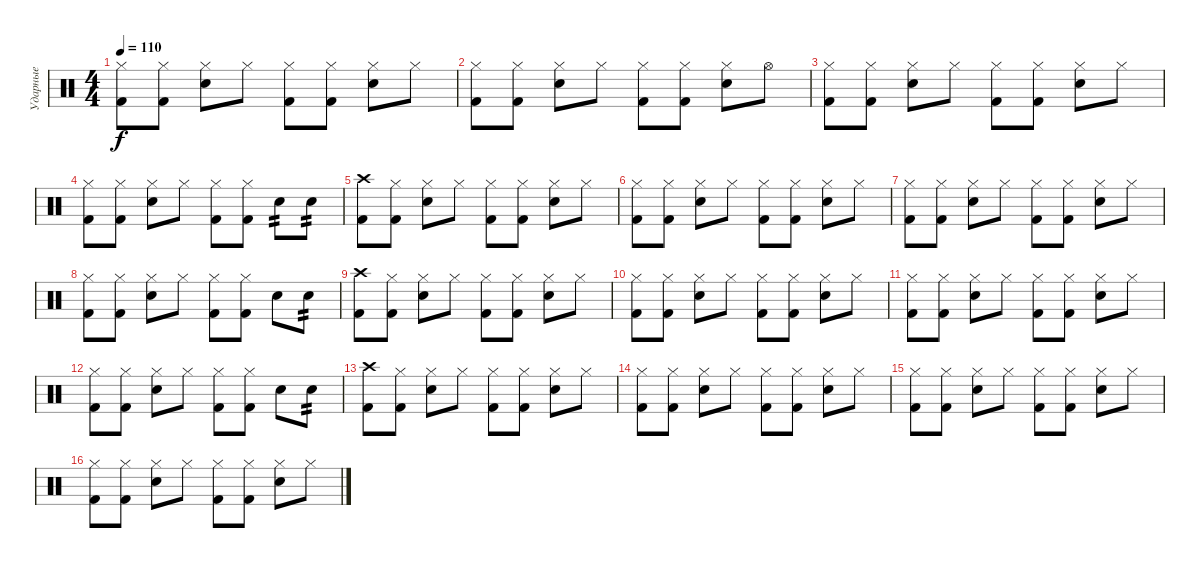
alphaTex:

\track ("Ударные" "Ударные") {instrument percussion}
\staff {score}
\articulation defaults
\ts (4 4)
\tempo 110
\clef neutral
\ks c
("Kick (hit) 2" "Hi-Hat (closed)").8{dy f} ("Kick (hit) 2" "Hi-Hat (closed)").8 ("Snare (hit) 2" "Hi-Hat (closed)").8 "Hi-Hat (closed)".8 ("Kick (hit) 2" "Hi-Hat (closed)").8 ("Kick (hit) 2" "Hi-Hat (closed)").8 ("Snare (hit) 2" "Hi-Hat (closed)").8 "Hi-Hat (closed)".8 |
("Kick (hit) 2" "Hi-Hat (closed)").8 ("Kick (hit) 2" "Hi-Hat (closed)").8 ("Snare (hit) 2" "Hi-Hat (closed)").8 "Hi-Hat (closed)".8 ("Kick (hit) 2" "Hi-Hat (closed)").8 ("Kick (hit) 2" "Hi-Hat (closed)").8 ("Snare (hit) 2" "Hi-Hat (closed)").8 "Hi-Hat (open)".8 |
("Kick (hit) 2" "Hi-Hat (closed)").8 ("Kick (hit) 2" "Hi-Hat (closed)").8 ("Snare (hit) 2" "Hi-Hat (closed)").8 "Hi-Hat (closed)".8 ("Kick (hit) 2" "Hi-Hat (closed)").8 ("Kick (hit) 2" "Hi-Hat (closed)").8 ("Snare (hit) 2" "Hi-Hat (closed)").8 "Hi-Hat (closed)".8 |
("Kick (hit) 2" "Hi-Hat (closed)").8 ("Kick (hit) 2" "Hi-Hat (closed)").8 ("Snare (hit) 2" "Hi-Hat (closed)").8 "Hi-Hat (closed)".8 ("Kick (hit) 2" "Hi-Hat (closed)").8 ("Kick (hit) 2" "Hi-Hat (closed)").8 "Snare (hit) 2".8{tp 2} "Snare (hit) 2".8{tp 2} |
("Kick (hit) 2" "Crash high (hit)").8 ("Kick (hit) 2" "Hi-Hat (closed)").8 ("Snare (hit) 2" "Hi-Hat (closed)").8 "Hi-Hat (closed)".8 ("Kick (hit) 2" "Hi-Hat (closed)").8 ("Kick (hit) 2" "Hi-Hat (closed)").8 ("Snare (hit) 2" "Hi-Hat (closed)").8 "Hi-Hat (closed)".8 |
("Kick (hit) 2" "Hi-Hat (closed)").8 ("Kick (hit) 2" "Hi-Hat (closed)").8 ("Snare (hit) 2" "Hi-Hat (closed)").8 "Hi-Hat (closed)".8 ("Kick (hit) 2" "Hi-Hat (closed)").8 ("Kick (hit) 2" "Hi-Hat (closed)").8 ("Snare (hit) 2" "Hi-Hat (closed)").8 "Hi-Hat (closed)".8 |
("Kick (hit) 2" "Hi-Hat (closed)").8 ("Kick (hit) 2" "Hi-Hat (closed)").8 ("Snare (hit) 2" "Hi-Hat (closed)").8 "Hi-Hat (closed)".8 ("Kick (hit) 2" "Hi-Hat (closed)").8 ("Kick (hit) 2" "Hi-Hat (closed)").8 ("Snare (hit) 2" "Hi-Hat (closed)").8 "Hi-Hat (closed)".8 |
("Kick (hit) 2" "Hi-Hat (closed)").8 ("Kick (hit) 2" "Hi-Hat (closed)").8 ("Snare (hit) 2" "Hi-Hat (closed)").8 "Hi-Hat (closed)".8 ("Kick (hit) 2" "Hi-Hat (closed)").8 ("Kick (hit) 2" "Hi-Hat (closed)").8 "Snare (hit) 2".8 "Snare (hit) 2".8{tp 2} |
("Kick (hit) 2" "Crash high (hit)").8 ("Kick (hit) 2" "Hi-Hat (closed)").8 ("Snare (hit) 2" "Hi-Hat (closed)").8 "Hi-Hat (closed)".8 ("Kick (hit) 2" "Hi-Hat (closed)").8 ("Kick (hit) 2" "Hi-Hat (closed)").8 ("Snare (hit) 2" "Hi-Hat (closed)").8 "Hi-Hat (closed)".8 |
("Kick (hit) 2" "Hi-Hat (closed)").8 ("Kick (hit) 2" "Hi-Hat (closed)").8 ("Snare (hit) 2" "Hi-Hat (closed)").8 "Hi-Hat (closed)".8 ("Kick (hit) 2" "Hi-Hat (closed)").8 ("Kick (hit) 2" "Hi-Hat (closed)").8 ("Snare (hit) 2" "Hi-Hat (closed)").8 "Hi-Hat (closed)".8 |
("Kick (hit) 2" "Hi-Hat (closed)").8 ("Kick (hit) 2" "Hi-Hat (closed)").8 ("Snare (hit) 2" "Hi-Hat (closed)").8 "Hi-Hat (closed)".8 ("Kick (hit) 2" "Hi-Hat (closed)").8 ("Kick (hit) 2" "Hi-Hat (closed)").8 ("Snare (hit) 2" "Hi-Hat (closed)").8 "Hi-Hat (closed)".8 |
("Kick (hit) 2" "Hi-Hat (closed)").8 ("Kick (hit) 2" "Hi-Hat (closed)").8 ("Snare (hit) 2" "Hi-Hat (closed)").8 "Hi-Hat (closed)".8 ("Kick (hit) 2" "Hi-Hat (closed)").8 ("Kick (hit) 2" "Hi-Hat (closed)").8 "Snare (hit) 2".8 "Snare (hit) 2".8{tp 2} |
("Kick (hit) 2" "Crash high (hit)").8 ("Kick (hit) 2" "Hi-Hat (closed)").8 ("Snare (hit) 2" "Hi-Hat (closed)").8 "Hi-Hat (closed)".8 ("Kick (hit) 2" "Hi-Hat (closed)").8 ("Kick (hit) 2" "Hi-Hat (closed)").8 ("Snare (hit) 2" "Hi-Hat (closed)").8 "Hi-Hat (closed)".8 |
("Kick (hit) 2" "Hi-Hat (closed)").8 ("Kick (hit) 2" "Hi-Hat (closed)").8 ("Snare (hit) 2" "Hi-Hat (closed)").8 "Hi-Hat (closed)".8 ("Kick (hit) 2" "Hi-Hat (closed)").8 ("Kick (hit) 2" "Hi-Hat (closed)").8 ("Snare (hit) 2" "Hi-Hat (closed)").8 "Hi-Hat (closed)".8 |
("Kick (hit) 2" "Hi-Hat (closed)").8 ("Kick (hit) 2" "Hi-Hat (closed)").8 ("Snare (hit) 2" "Hi-Hat (closed)").8 "Hi-Hat (closed)".8 ("Kick (hit) 2" "Hi-Hat (closed)").8 ("Kick (hit) 2" "Hi-Hat (closed)").8 ("Snare (hit) 2" "Hi-Hat (closed)").8 "Hi-Hat (closed)".8 |
("Kick (hit) 2" "Hi-Hat (closed)").8 ("Kick (hit) 2" "Hi-Hat (closed)").8 ("Snare (hit) 2" "Hi-Hat (closed)").8 "Hi-Hat (closed)".8 ("Kick (hit) 2" "Hi-Hat (closed)").8 ("Kick (hit) 2" "Hi-Hat (closed)").8 ("Snare (hit) 2" "Hi-Hat (closed)").8 "Hi-Hat (closed)".8
